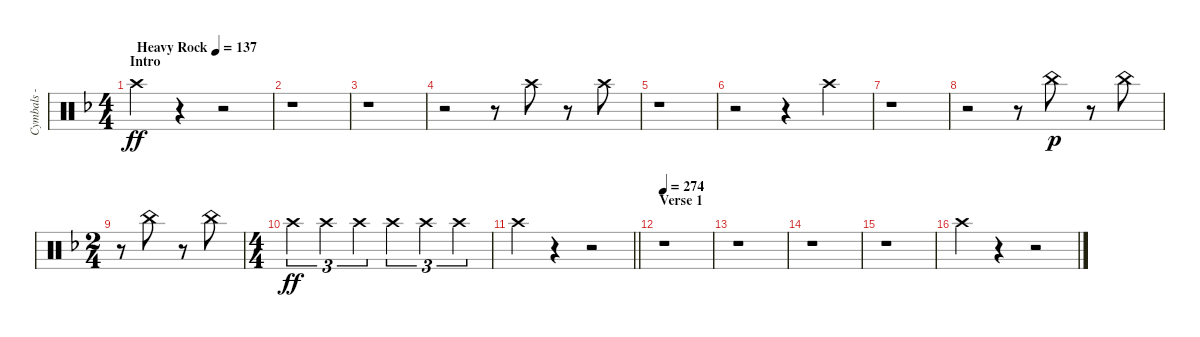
\track ("Cymbals - crash" "Cymbals - ") {instrument percussion}
\staff {score}
\articulation defaults
\ts (4 4)
\section ("" "Intro")
\tempo (137 "Heavy Rock")
\clef neutral
\ks dminor "Crash high (hit)".4{dy ff volume 3}
r.4 r.2 |
r.1 |
r.1 |
r.2 r.8 "Crash high (hit)".8 r.8 "Crash high (hit)".8 |
r.1 |
r.2 r.4 "Crash high (hit)".4 |
r.1 |
r.2 r.8 "China (hit)".8{dy p} r.8 "China (hit)".8 |
\ts (2 4)
r.8 "China (hit)".8 r.8 "China (hit)".8 |
\ts (4 4)
"Crash high (hit)".4{tu (3 2) dy ff} "Crash high (hit)".4{tu (3 2)} "Crash high (hit)".4{tu (3 2)} "Crash high (hit)".4{tu (3 2)} "Crash high (hit)".4{tu (3 2)} "Crash high (hit)".4{tu (3 2)} |
\barLineRight lightlight "Crash high (hit)".4
r.4 r.2 |
\section ("" "Verse 1")
\tempo 274
r.1 |
r.1 |
r.1 |
r.1 |
"Crash high (hit)".4 r.4 r.2
